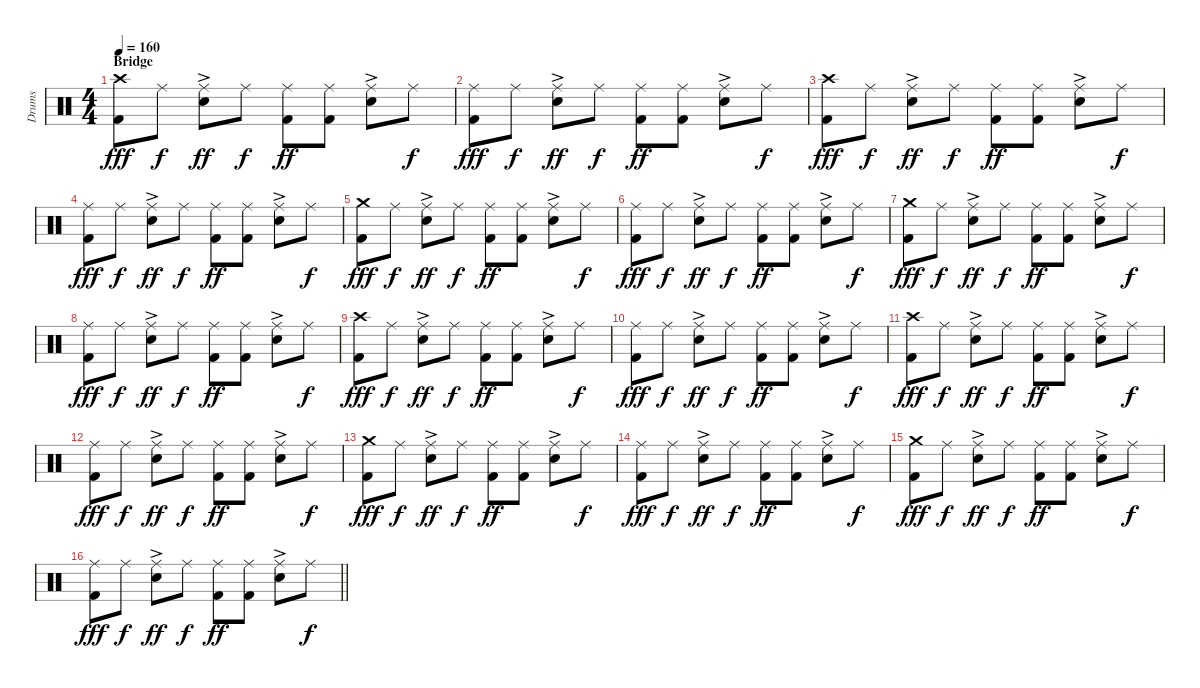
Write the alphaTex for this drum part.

\track ("Drums" "Drums") {instrument percussion}
\staff {score}
\articulation defaults
\ts (4 4)
\section ("" "Bridge")
\tempo 160
\clef neutral
\ks c
("Crash high (hit)" "Kick (hit) 2").8{dy fff} "Ride (middle)".8{dy f} ("Ride (middle)"{ac} "Electric Snare (hit)").8{dy ff} "Ride (middle)".8{dy f} ("Ride (middle)" "Kick (hit) 2").8{dy ff} ("Ride (middle)" "Kick (hit) 2").8 ("Ride (middle)"{ac} "Electric Snare (hit)").8 "Ride (middle)".8{dy f} |
("Ride (middle)" "Kick (hit) 2").8{dy fff} "Ride (middle)".8{dy f} ("Ride (middle)"{ac} "Electric Snare (hit)").8{dy ff} "Ride (middle)".8{dy f} ("Ride (middle)" "Kick (hit) 2").8{dy ff} ("Ride (middle)" "Kick (hit) 2").8 ("Ride (middle)"{ac} "Electric Snare (hit)").8 "Ride (middle)".8{dy f} |
("Crash high (hit)" "Kick (hit) 2").8{dy fff} "Ride (middle)".8{dy f} ("Ride (middle)"{ac} "Electric Snare (hit)").8{dy ff} "Ride (middle)".8{dy f} ("Ride (middle)" "Kick (hit) 2").8{dy ff} ("Ride (middle)" "Kick (hit) 2").8 ("Ride (middle)"{ac} "Electric Snare (hit)").8 "Ride (middle)".8{dy f} |
("Ride (middle)" "Kick (hit) 2").8{dy fff} "Ride (middle)".8{dy f} ("Ride (middle)"{ac} "Electric Snare (hit)").8{dy ff} "Ride (middle)".8{dy f} ("Ride (middle)" "Kick (hit) 2").8{dy ff} ("Ride (middle)" "Kick (hit) 2").8 ("Ride (middle)"{ac} "Electric Snare (hit)").8 "Ride (middle)".8{dy f} |
("Crash medium (hit)" "Kick (hit) 2").8{dy fff} "Ride (middle)".8{dy f} ("Ride (middle)"{ac} "Electric Snare (hit)").8{dy ff} "Ride (middle)".8{dy f} ("Ride (middle)" "Kick (hit) 2").8{dy ff} ("Ride (middle)" "Kick (hit) 2").8 ("Ride (middle)"{ac} "Electric Snare (hit)").8 "Ride (middle)".8{dy f} |
("Ride (middle)" "Kick (hit) 2").8{dy fff} "Ride (middle)".8{dy f} ("Ride (middle)"{ac} "Electric Snare (hit)").8{dy ff} "Ride (middle)".8{dy f} ("Ride (middle)" "Kick (hit) 2").8{dy ff} ("Ride (middle)" "Kick (hit) 2").8 ("Ride (middle)"{ac} "Electric Snare (hit)").8 "Ride (middle)".8{dy f} |
("Crash medium (hit)" "Kick (hit) 2").8{dy fff} "Ride (middle)".8{dy f} ("Ride (middle)"{ac} "Electric Snare (hit)").8{dy ff} "Ride (middle)".8{dy f} ("Ride (middle)" "Kick (hit) 2").8{dy ff} ("Ride (middle)" "Kick (hit) 2").8 ("Ride (middle)"{ac} "Electric Snare (hit)").8 "Ride (middle)".8{dy f} |
("Ride (middle)" "Kick (hit) 2").8{dy fff} "Ride (middle)".8{dy f} ("Ride (middle)"{ac} "Electric Snare (hit)").8{dy ff} "Ride (middle)".8{dy f} ("Ride (middle)" "Kick (hit) 2").8{dy ff} ("Ride (middle)" "Kick (hit) 2").8 ("Ride (middle)"{ac} "Electric Snare (hit)").8 "Ride (middle)".8{dy f} |
("Crash high (hit)" "Kick (hit) 2").8{dy fff} "Ride (middle)".8{dy f} ("Ride (middle)"{ac} "Electric Snare (hit)").8{dy ff} "Ride (middle)".8{dy f} ("Ride (middle)" "Kick (hit) 2").8{dy ff} ("Ride (middle)" "Kick (hit) 2").8 ("Ride (middle)"{ac} "Electric Snare (hit)").8 "Ride (middle)".8{dy f} |
("Ride (middle)" "Kick (hit) 2").8{dy fff} "Ride (middle)".8{dy f} ("Ride (middle)"{ac} "Electric Snare (hit)").8{dy ff} "Ride (middle)".8{dy f} ("Ride (middle)" "Kick (hit) 2").8{dy ff} ("Ride (middle)" "Kick (hit) 2").8 ("Ride (middle)"{ac} "Electric Snare (hit)").8 "Ride (middle)".8{dy f} |
("Crash high (hit)" "Kick (hit) 2").8{dy fff} "Ride (middle)".8{dy f} ("Ride (middle)"{ac} "Electric Snare (hit)").8{dy ff} "Ride (middle)".8{dy f} ("Ride (middle)" "Kick (hit) 2").8{dy ff} ("Ride (middle)" "Kick (hit) 2").8 ("Ride (middle)"{ac} "Electric Snare (hit)").8 "Ride (middle)".8{dy f} |
("Ride (middle)" "Kick (hit) 2").8{dy fff} "Ride (middle)".8{dy f} ("Ride (middle)"{ac} "Electric Snare (hit)").8{dy ff} "Ride (middle)".8{dy f} ("Ride (middle)" "Kick (hit) 2").8{dy ff} ("Ride (middle)" "Kick (hit) 2").8 ("Ride (middle)"{ac} "Electric Snare (hit)").8 "Ride (middle)".8{dy f} |
("Crash medium (hit)" "Kick (hit) 2").8{dy fff} "Ride (middle)".8{dy f} ("Ride (middle)"{ac} "Electric Snare (hit)").8{dy ff} "Ride (middle)".8{dy f} ("Ride (middle)" "Kick (hit) 2").8{dy ff} ("Ride (middle)" "Kick (hit) 2").8 ("Ride (middle)"{ac} "Electric Snare (hit)").8 "Ride (middle)".8{dy f} |
("Ride (middle)" "Kick (hit) 2").8{dy fff} "Ride (middle)".8{dy f} ("Ride (middle)"{ac} "Electric Snare (hit)").8{dy ff} "Ride (middle)".8{dy f} ("Ride (middle)" "Kick (hit) 2").8{dy ff} ("Ride (middle)" "Kick (hit) 2").8 ("Ride (middle)"{ac} "Electric Snare (hit)").8 "Ride (middle)".8{dy f} |
("Crash medium (hit)" "Kick (hit) 2").8{dy fff} "Ride (middle)".8{dy f} ("Ride (middle)"{ac} "Electric Snare (hit)").8{dy ff} "Ride (middle)".8{dy f} ("Ride (middle)" "Kick (hit) 2").8{dy ff} ("Ride (middle)" "Kick (hit) 2").8 ("Ride (middle)"{ac} "Electric Snare (hit)").8 "Ride (middle)".8{dy f} |
\barLineRight lightlight
("Ride (middle)" "Kick (hit) 2").8{dy fff} "Ride (middle)".8{dy f} ("Ride (middle)"{ac} "Electric Snare (hit)").8{dy ff} "Ride (middle)".8{dy f} ("Ride (middle)" "Kick (hit) 2").8{dy ff} ("Ride (middle)" "Kick (hit) 2").8 ("Ride (middle)"{ac} "Electric Snare (hit)").8 "Ride (middle)".8{dy f}
